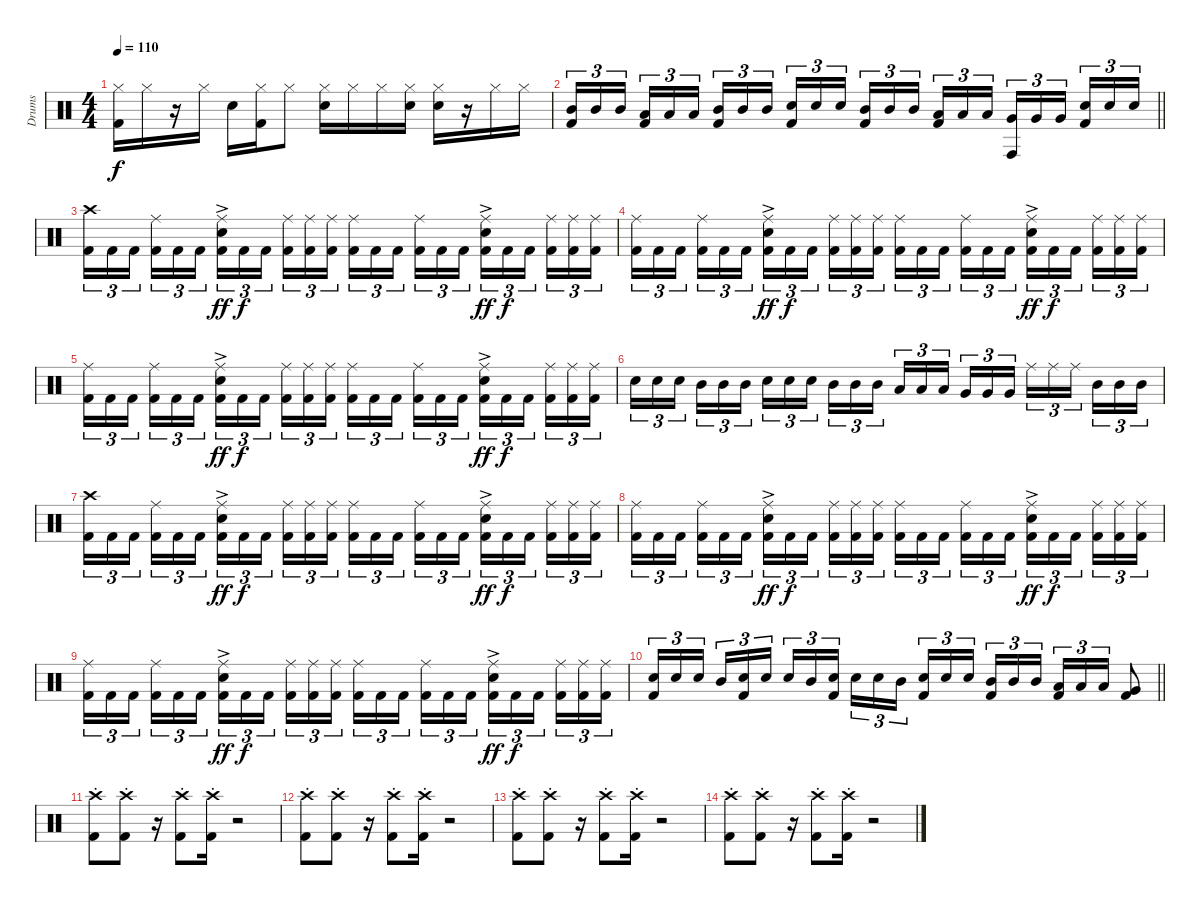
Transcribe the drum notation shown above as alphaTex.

\track ("Drums" "Drums") {instrument percussion}
\staff {score}
\articulation defaults
\ts (4 4)
\tempo 110
\clef neutral
\ks c
("Hi-Hat (closed)" "Kick (hit) 2").16{dy f} "Hi-Hat (closed)".16 r.16 "Hi-Hat (closed)".16 "Snare (hit) 2".16 ("Hi-Hat (closed)" "Kick (hit) 2").16 "Hi-Hat (closed)".8 ("Hi-Hat (closed)" "Snare (hit) 2").16 "Hi-Hat (closed)".16 "Hi-Hat (closed)".16 ("Hi-Hat (closed)" "Snare (hit) 2").16 ("Hi-Hat (closed)" "Snare (hit) 2").16 r.16 "Hi-Hat (closed)".16 "Hi-Hat (closed)".16 |
\barLineRight lightlight
("Mid Tom (hit)" "Kick (hit) 2").16{tu (3 2)} "Mid Tom (hit)".16{tu (3 2)} "Mid Tom (hit)".16{tu (3 2) beam splitsecondary} ("Low Tom (hit)" "Kick (hit) 2").16{tu (3 2)} "Low Tom (hit)".16{tu (3 2)} "Low Tom (hit)".16{tu (3 2)} ("Mid Tom (hit)" "Kick (hit) 2").16{tu (3 2)} "Mid Tom (hit)".16{tu (3 2)} "Mid Tom (hit)".16{tu (3 2) beam splitsecondary} ("Snare (hit) 2" "Kick (hit) 2").16{tu (3 2)} "Snare (hit) 2".16{tu (3 2)} "Snare (hit) 2".16{tu (3 2)} ("Mid Tom (hit)" "Kick (hit) 2").16{tu (3 2)} "Mid Tom (hit)".16{tu (3 2)} "Mid Tom (hit)".16{tu (3 2) beam splitsecondary} ("Low Tom (hit)" "Kick (hit) 2").16{tu (3 2)} "Low Tom (hit)".16{tu (3 2)} "Low Tom (hit)".16{tu (3 2)} ("Very Low Tom (hit)" "Conga high (hit)").16{tu (3 2)} "Very Low Tom (hit)".16{tu (3 2)} "Very Low Tom (hit)".16{tu (3 2) beam splitsecondary} ("Snare (hit) 2" "Kick (hit) 2").16{tu (3 2)} "Snare (hit) 2".16{tu (3 2)} "Snare (hit) 2".16{tu (3 2)} |
("Crash high (hit)" "Kick (hit) 2").16{tu (3 2)} "Kick (hit) 2".16{tu (3 2)} "Kick (hit) 2".16{tu (3 2) beam splitsecondary} ("Ride (middle)" "Kick (hit) 2").16{tu (3 2)} "Kick (hit) 2".16{tu (3 2)} "Kick (hit) 2".16{tu (3 2)} ("Ride (middle)"{ac} "Snare (hit) 2" "Kick (hit) 2").16{tu (3 2) dy ff} "Kick (hit) 2".16{tu (3 2) dy f} "Kick (hit) 2".16{tu (3 2) beam splitsecondary} ("Ride (middle)" "Kick (hit) 2").16{tu (3 2)} ("Ride (middle)" "Kick (hit) 2").16{tu (3 2)} ("Ride (middle)" "Kick (hit) 2").16{tu (3 2)} ("Ride (middle)" "Kick (hit) 2").16{tu (3 2)} "Kick (hit) 2".16{tu (3 2)} "Kick (hit) 2".16{tu (3 2) beam splitsecondary} ("Ride (middle)" "Kick (hit) 2").16{tu (3 2)} "Kick (hit) 2".16{tu (3 2)} "Kick (hit) 2".16{tu (3 2)} ("Ride (middle)"{ac} "Snare (hit) 2" "Kick (hit) 2").16{tu (3 2) dy ff} "Kick (hit) 2".16{tu (3 2) dy f} "Kick (hit) 2".16{tu (3 2) beam splitsecondary} ("Ride (middle)" "Kick (hit) 2").16{tu (3 2)} ("Ride (middle)" "Kick (hit) 2").16{tu (3 2)} ("Ride (middle)" "Kick (hit) 2").16{tu (3 2)} |
("Ride (middle)" "Kick (hit) 2").16{tu (3 2)} "Kick (hit) 2".16{tu (3 2)} "Kick (hit) 2".16{tu (3 2) beam splitsecondary} ("Ride (middle)" "Kick (hit) 2").16{tu (3 2)} "Kick (hit) 2".16{tu (3 2)} "Kick (hit) 2".16{tu (3 2)} ("Ride (middle)"{ac} "Snare (hit) 2" "Kick (hit) 2").16{tu (3 2) dy ff} "Kick (hit) 2".16{tu (3 2) dy f} "Kick (hit) 2".16{tu (3 2) beam splitsecondary} ("Ride (middle)" "Kick (hit) 2").16{tu (3 2)} ("Ride (middle)" "Kick (hit) 2").16{tu (3 2)} ("Ride (middle)" "Kick (hit) 2").16{tu (3 2)} ("Ride (middle)" "Kick (hit) 2").16{tu (3 2)} "Kick (hit) 2".16{tu (3 2)} "Kick (hit) 2".16{tu (3 2) beam splitsecondary} ("Ride (middle)" "Kick (hit) 2").16{tu (3 2)} "Kick (hit) 2".16{tu (3 2)} "Kick (hit) 2".16{tu (3 2)} ("Ride (middle)"{ac} "Snare (hit) 2" "Kick (hit) 2").16{tu (3 2) dy ff} "Kick (hit) 2".16{tu (3 2) dy f} "Kick (hit) 2".16{tu (3 2) beam splitsecondary} ("Ride (middle)" "Kick (hit) 2").16{tu (3 2)} ("Ride (middle)" "Kick (hit) 2").16{tu (3 2)} ("Ride (middle)" "Kick (hit) 2").16{tu (3 2)} |
("Ride (middle)" "Kick (hit) 2").16{tu (3 2)} "Kick (hit) 2".16{tu (3 2)} "Kick (hit) 2".16{tu (3 2) beam splitsecondary} ("Ride (middle)" "Kick (hit) 2").16{tu (3 2)} "Kick (hit) 2".16{tu (3 2)} "Kick (hit) 2".16{tu (3 2)} ("Ride (middle)"{ac} "Snare (hit) 2" "Kick (hit) 2").16{tu (3 2) dy ff} "Kick (hit) 2".16{tu (3 2) dy f} "Kick (hit) 2".16{tu (3 2) beam splitsecondary} ("Ride (middle)" "Kick (hit) 2").16{tu (3 2)} ("Ride (middle)" "Kick (hit) 2").16{tu (3 2)} ("Ride (middle)" "Kick (hit) 2").16{tu (3 2)} ("Ride (middle)" "Kick (hit) 2").16{tu (3 2)} "Kick (hit) 2".16{tu (3 2)} "Kick (hit) 2".16{tu (3 2) beam splitsecondary} ("Ride (middle)" "Kick (hit) 2").16{tu (3 2)} "Kick (hit) 2".16{tu (3 2)} "Kick (hit) 2".16{tu (3 2)} ("Ride (middle)"{ac} "Snare (hit) 2" "Kick (hit) 2").16{tu (3 2) dy ff} "Kick (hit) 2".16{tu (3 2) dy f} "Kick (hit) 2".16{tu (3 2) beam splitsecondary} ("Ride (middle)" "Kick (hit) 2").16{tu (3 2)} ("Ride (middle)" "Kick (hit) 2").16{tu (3 2)} ("Ride (middle)" "Kick (hit) 2").16{tu (3 2)} |
"Snare (hit) 2".16{tu (3 2)} "Snare (hit) 2".16{tu (3 2)} "Snare (hit) 2".16{tu (3 2) beam splitsecondary} "Mid Tom (hit)".16{tu (3 2)} "Mid Tom (hit)".16{tu (3 2)} "Mid Tom (hit)".16{tu (3 2)} "Snare (hit) 2".16{tu (3 2)} "Snare (hit) 2".16{tu (3 2)} "Snare (hit) 2".16{tu (3 2) beam splitsecondary} "Mid Tom (hit)".16{tu (3 2)} "Mid Tom (hit)".16{tu (3 2)} "Mid Tom (hit)".16{tu (3 2)} "Low Tom (hit)".16{tu (3 2)} "Low Tom (hit)".16{tu (3 2)} "Low Tom (hit)".16{tu (3 2) beam splitsecondary} "Very Low Tom (hit)".16{tu (3 2)} "Very Low Tom (hit)".16{tu (3 2)} "Very Low Tom (hit)".16{tu (3 2)} "Ride (middle)".16{tu (3 2)} "Ride (middle)".16{tu (3 2)} "Ride (middle)".16{tu (3 2) beam splitsecondary} "Mid Tom (hit)".16{tu (3 2)} "Mid Tom (hit)".16{tu (3 2)} "Mid Tom (hit)".16{tu (3 2)} |
("Crash high (hit)" "Kick (hit) 2").16{tu (3 2)} "Kick (hit) 2".16{tu (3 2)} "Kick (hit) 2".16{tu (3 2) beam splitsecondary} ("Ride (middle)" "Kick (hit) 2").16{tu (3 2)} "Kick (hit) 2".16{tu (3 2)} "Kick (hit) 2".16{tu (3 2)} ("Ride (middle)"{ac} "Snare (hit) 2" "Kick (hit) 2").16{tu (3 2) dy ff} "Kick (hit) 2".16{tu (3 2) dy f} "Kick (hit) 2".16{tu (3 2) beam splitsecondary} ("Ride (middle)" "Kick (hit) 2").16{tu (3 2)} ("Ride (middle)" "Kick (hit) 2").16{tu (3 2)} ("Ride (middle)" "Kick (hit) 2").16{tu (3 2)} ("Ride (middle)" "Kick (hit) 2").16{tu (3 2)} "Kick (hit) 2".16{tu (3 2)} "Kick (hit) 2".16{tu (3 2) beam splitsecondary} ("Ride (middle)" "Kick (hit) 2").16{tu (3 2)} "Kick (hit) 2".16{tu (3 2)} "Kick (hit) 2".16{tu (3 2)} ("Ride (middle)"{ac} "Snare (hit) 2" "Kick (hit) 2").16{tu (3 2) dy ff} "Kick (hit) 2".16{tu (3 2) dy f} "Kick (hit) 2".16{tu (3 2) beam splitsecondary} ("Ride (middle)" "Kick (hit) 2").16{tu (3 2)} ("Ride (middle)" "Kick (hit) 2").16{tu (3 2)} ("Ride (middle)" "Kick (hit) 2").16{tu (3 2)} |
("Ride (middle)" "Kick (hit) 2").16{tu (3 2)} "Kick (hit) 2".16{tu (3 2)} "Kick (hit) 2".16{tu (3 2) beam splitsecondary} ("Ride (middle)" "Kick (hit) 2").16{tu (3 2)} "Kick (hit) 2".16{tu (3 2)} "Kick (hit) 2".16{tu (3 2)} ("Ride (middle)"{ac} "Snare (hit) 2" "Kick (hit) 2").16{tu (3 2) dy ff} "Kick (hit) 2".16{tu (3 2) dy f} "Kick (hit) 2".16{tu (3 2) beam splitsecondary} ("Ride (middle)" "Kick (hit) 2").16{tu (3 2)} ("Ride (middle)" "Kick (hit) 2").16{tu (3 2)} ("Ride (middle)" "Kick (hit) 2").16{tu (3 2)} ("Ride (middle)" "Kick (hit) 2").16{tu (3 2)} "Kick (hit) 2".16{tu (3 2)} "Kick (hit) 2".16{tu (3 2) beam splitsecondary} ("Ride (middle)" "Kick (hit) 2").16{tu (3 2)} "Kick (hit) 2".16{tu (3 2)} "Kick (hit) 2".16{tu (3 2)} ("Ride (middle)"{ac} "Snare (hit) 2" "Kick (hit) 2").16{tu (3 2) dy ff} "Kick (hit) 2".16{tu (3 2) dy f} "Kick (hit) 2".16{tu (3 2) beam splitsecondary} ("Ride (middle)" "Kick (hit) 2").16{tu (3 2)} ("Ride (middle)" "Kick (hit) 2").16{tu (3 2)} ("Ride (middle)" "Kick (hit) 2").16{tu (3 2)} |
("Ride (middle)" "Kick (hit) 2").16{tu (3 2)} "Kick (hit) 2".16{tu (3 2)} "Kick (hit) 2".16{tu (3 2) beam splitsecondary} ("Ride (middle)" "Kick (hit) 2").16{tu (3 2)} "Kick (hit) 2".16{tu (3 2)} "Kick (hit) 2".16{tu (3 2)} ("Ride (middle)"{ac} "Snare (hit) 2" "Kick (hit) 2").16{tu (3 2) dy ff} "Kick (hit) 2".16{tu (3 2) dy f} "Kick (hit) 2".16{tu (3 2) beam splitsecondary} ("Ride (middle)" "Kick (hit) 2").16{tu (3 2)} ("Ride (middle)" "Kick (hit) 2").16{tu (3 2)} ("Ride (middle)" "Kick (hit) 2").16{tu (3 2)} ("Ride (middle)" "Kick (hit) 2").16{tu (3 2)} "Kick (hit) 2".16{tu (3 2)} "Kick (hit) 2".16{tu (3 2) beam splitsecondary} ("Ride (middle)" "Kick (hit) 2").16{tu (3 2)} "Kick (hit) 2".16{tu (3 2)} "Kick (hit) 2".16{tu (3 2)} ("Ride (middle)"{ac} "Snare (hit) 2" "Kick (hit) 2").16{tu (3 2) dy ff} "Kick (hit) 2".16{tu (3 2) dy f} "Kick (hit) 2".16{tu (3 2) beam splitsecondary} ("Ride (middle)" "Kick (hit) 2").16{tu (3 2)} ("Ride (middle)" "Kick (hit) 2").16{tu (3 2)} ("Ride (middle)" "Kick (hit) 2").16{tu (3 2)} |
\barLineRight lightlight
("Snare (hit) 2" "Kick (hit) 2").16{tu (3 2)} "Snare (hit) 2".16{tu (3 2)} "Snare (hit) 2".16{tu (3 2) beam splitsecondary} "Mid Tom (hit)".16{tu (3 2)} ("Snare (hit) 2" "Kick (hit) 2").16{tu (3 2)} "Snare (hit) 2".16{tu (3 2)} "Snare (hit) 2".16{tu (3 2)} "Mid Tom (hit)".16{tu (3 2)} ("Snare (hit) 2" "Kick (hit) 2").16{tu (3 2) beam splitsecondary} "Snare (hit) 2".16{tu (3 2)} "Snare (hit) 2".16{tu (3 2)} "Mid Tom (hit)".16{tu (3 2)} ("Snare (hit) 2" "Kick (hit) 2").16{tu (3 2)} "Snare (hit) 2".16{tu (3 2)} "Snare (hit) 2".16{tu (3 2) beam splitsecondary} ("Mid Tom (hit)" "Kick (hit) 2").16{tu (3 2)} "Mid Tom (hit)".16{tu (3 2)} "Mid Tom (hit)".16{tu (3 2)} ("Low Tom (hit)" "Kick (hit) 2").16{tu (3 2)} "Low Tom (hit)".16{tu (3 2)} "Low Tom (hit)".16{tu (3 2)} ("Very Low Tom (hit)" "Kick (hit) 2").8 |
("Crash high (hit)"{st} "Kick (hit) 2").8 ("Crash high (hit)"{st} "Kick (hit) 2").8 r.16 ("Crash high (hit)"{st} "Kick (hit) 2").8 ("Crash high (hit)"{st} "Kick (hit) 2").16 r.2 |
("Crash high (hit)"{st} "Kick (hit) 2").8 ("Crash high (hit)"{st} "Kick (hit) 2").8 r.16 ("Crash high (hit)"{st} "Kick (hit) 2").8 ("Crash high (hit)"{st} "Kick (hit) 2").16 r.2 |
("Crash high (hit)"{st} "Kick (hit) 2").8 ("Crash high (hit)"{st} "Kick (hit) 2").8 r.16 ("Crash high (hit)"{st} "Kick (hit) 2").8 ("Crash high (hit)"{st} "Kick (hit) 2").16 r.2 |
("Crash high (hit)"{st} "Kick (hit) 2").8 ("Crash high (hit)"{st} "Kick (hit) 2").8 r.16 ("Crash high (hit)"{st} "Kick (hit) 2").8 ("Crash high (hit)"{st} "Kick (hit) 2").16 r.2
